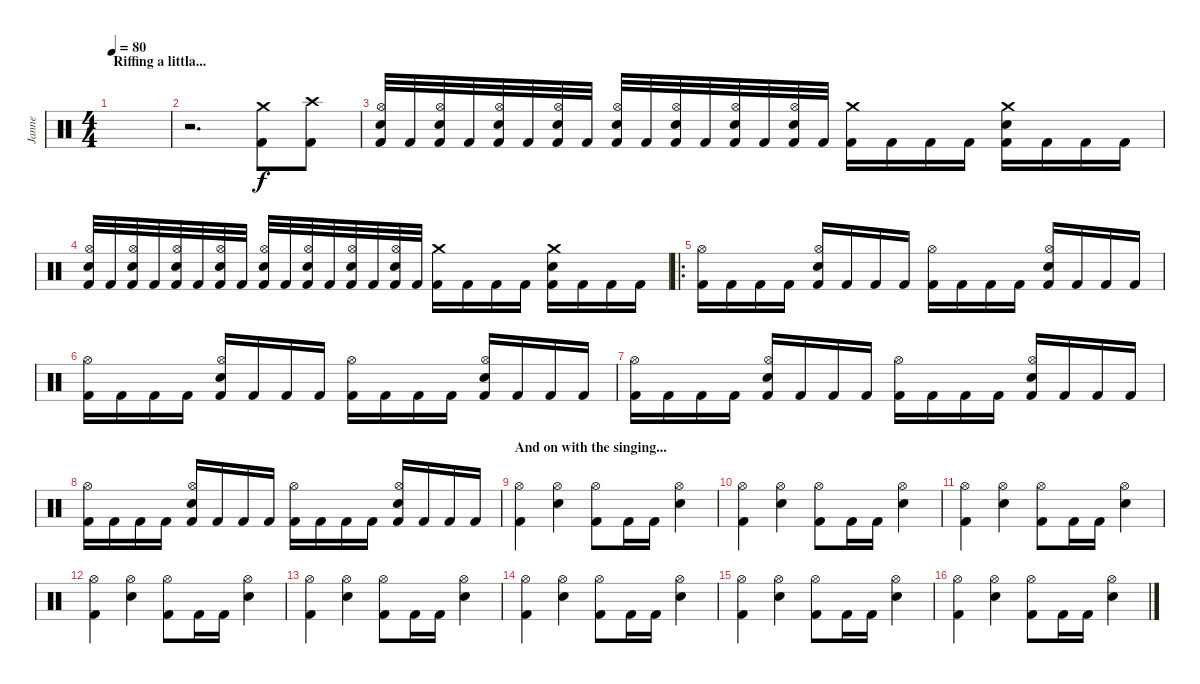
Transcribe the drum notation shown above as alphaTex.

\track ("Janne" "Janne") {instrument percussion}
\staff {score}
\articulation defaults
\ts (4 4)
\section ("" "Riffing a littla...")
\tempo 80
\clef neutral
\ks c
|
r.2{d} ("Crash medium (hit)" "Kick (hit) 2").8 ("Crash high (hit)" "Kick (hit) 2").8 |
("Hi-Hat (open)" "Electric Snare (hit)" "Kick (hit) 2").32 "Kick (hit) 2".32 ("Hi-Hat (open)" "Electric Snare (hit)" "Kick (hit) 2").32 "Kick (hit) 2".32 ("Hi-Hat (open)" "Electric Snare (hit)" "Kick (hit) 2").32 "Kick (hit) 2".32 ("Hi-Hat (open)" "Electric Snare (hit)" "Kick (hit) 2").32 "Kick (hit) 2".32 ("Hi-Hat (open)" "Electric Snare (hit)" "Kick (hit) 2").32 "Kick (hit) 2".32 ("Hi-Hat (open)" "Electric Snare (hit)" "Kick (hit) 2").32 "Kick (hit) 2".32 ("Hi-Hat (open)" "Electric Snare (hit)" "Kick (hit) 2").32 "Kick (hit) 2".32 ("Hi-Hat (open)" "Electric Snare (hit)" "Kick (hit) 2").32 "Kick (hit) 2".32 ("Crash medium (hit)" "Kick (hit) 2").16 "Kick (hit) 2".16 "Kick (hit) 2".16 "Kick (hit) 2".16 ("Crash medium (hit)" "Electric Snare (hit)" "Kick (hit) 2").16 "Kick (hit) 2".16 "Kick (hit) 2".16 "Kick (hit) 2".16 |
("Hi-Hat (open)" "Electric Snare (hit)" "Kick (hit) 2").32 "Kick (hit) 2".32 ("Hi-Hat (open)" "Electric Snare (hit)" "Kick (hit) 2").32 "Kick (hit) 2".32 ("Hi-Hat (open)" "Electric Snare (hit)" "Kick (hit) 2").32 "Kick (hit) 2".32 ("Hi-Hat (open)" "Electric Snare (hit)" "Kick (hit) 2").32 "Kick (hit) 2".32 ("Hi-Hat (open)" "Electric Snare (hit)" "Kick (hit) 2").32 "Kick (hit) 2".32 ("Hi-Hat (open)" "Electric Snare (hit)" "Kick (hit) 2").32 "Kick (hit) 2".32 ("Hi-Hat (open)" "Electric Snare (hit)" "Kick (hit) 2").32 "Kick (hit) 2".32 ("Hi-Hat (open)" "Electric Snare (hit)" "Kick (hit) 2").32 "Kick (hit) 2".32 ("Crash medium (hit)" "Kick (hit) 2").16 "Kick (hit) 2".16 "Kick (hit) 2".16 "Kick (hit) 2".16 ("Crash medium (hit)" "Electric Snare (hit)" "Kick (hit) 2").16 "Kick (hit) 2".16 "Kick (hit) 2".16 "Kick (hit) 2".16 |
\ro
("Hi-Hat (open)" "Kick (hit) 2").16 "Kick (hit) 2".16 "Kick (hit) 2".16 "Kick (hit) 2".16 ("Hi-Hat (open)" "Electric Snare (hit)" "Kick (hit) 2").16 "Kick (hit) 2".16 "Kick (hit) 2".16 "Kick (hit) 2".16 ("Hi-Hat (open)" "Kick (hit) 2").16 "Kick (hit) 2".16 "Kick (hit) 2".16 "Kick (hit) 2".16 ("Hi-Hat (open)" "Electric Snare (hit)" "Kick (hit) 2").16 "Kick (hit) 2".16 "Kick (hit) 2".16 "Kick (hit) 2".16 |
("Hi-Hat (open)" "Kick (hit) 2").16 "Kick (hit) 2".16 "Kick (hit) 2".16 "Kick (hit) 2".16 ("Hi-Hat (open)" "Electric Snare (hit)" "Kick (hit) 2").16 "Kick (hit) 2".16 "Kick (hit) 2".16 "Kick (hit) 2".16 ("Hi-Hat (open)" "Kick (hit) 2").16 "Kick (hit) 2".16 "Kick (hit) 2".16 "Kick (hit) 2".16 ("Hi-Hat (open)" "Electric Snare (hit)" "Kick (hit) 2").16 "Kick (hit) 2".16 "Kick (hit) 2".16 "Kick (hit) 2".16 |
("Hi-Hat (open)" "Kick (hit) 2").16 "Kick (hit) 2".16 "Kick (hit) 2".16 "Kick (hit) 2".16 ("Hi-Hat (open)" "Electric Snare (hit)" "Kick (hit) 2").16 "Kick (hit) 2".16 "Kick (hit) 2".16 "Kick (hit) 2".16 ("Hi-Hat (open)" "Kick (hit) 2").16 "Kick (hit) 2".16 "Kick (hit) 2".16 "Kick (hit) 2".16 ("Hi-Hat (open)" "Electric Snare (hit)" "Kick (hit) 2").16 "Kick (hit) 2".16 "Kick (hit) 2".16 "Kick (hit) 2".16 |
("Hi-Hat (open)" "Kick (hit) 2").16 "Kick (hit) 2".16 "Kick (hit) 2".16 "Kick (hit) 2".16 ("Hi-Hat (open)" "Electric Snare (hit)" "Kick (hit) 2").16 "Kick (hit) 2".16 "Kick (hit) 2".16 "Kick (hit) 2".16 ("Hi-Hat (open)" "Kick (hit) 2").16 "Kick (hit) 2".16 "Kick (hit) 2".16 "Kick (hit) 2".16 ("Hi-Hat (open)" "Electric Snare (hit)" "Kick (hit) 2").16 "Kick (hit) 2".16 "Kick (hit) 2".16 "Kick (hit) 2".16 |
\section ("" "And on with the singing...")
("Hi-Hat (open)" "Kick (hit) 2").4 ("Hi-Hat (open)" "Electric Snare (hit)").4 ("Hi-Hat (open)" "Kick (hit) 2").8 "Kick (hit) 2".16 "Kick (hit) 2".16 ("Hi-Hat (open)" "Electric Snare (hit)").4 |
("Hi-Hat (open)" "Kick (hit) 2").4 ("Hi-Hat (open)" "Electric Snare (hit)").4 ("Hi-Hat (open)" "Kick (hit) 2").8 "Kick (hit) 2".16 "Kick (hit) 2".16 ("Hi-Hat (open)" "Electric Snare (hit)").4 |
("Hi-Hat (open)" "Kick (hit) 2").4 ("Hi-Hat (open)" "Electric Snare (hit)").4 ("Hi-Hat (open)" "Kick (hit) 2").8 "Kick (hit) 2".16 "Kick (hit) 2".16 ("Hi-Hat (open)" "Electric Snare (hit)").4 |
("Hi-Hat (open)" "Kick (hit) 2").4 ("Hi-Hat (open)" "Electric Snare (hit)").4 ("Hi-Hat (open)" "Kick (hit) 2").8 "Kick (hit) 2".16 "Kick (hit) 2".16 ("Hi-Hat (open)" "Electric Snare (hit)").4 |
("Hi-Hat (open)" "Kick (hit) 2").4 ("Hi-Hat (open)" "Electric Snare (hit)").4 ("Hi-Hat (open)" "Kick (hit) 2").8 "Kick (hit) 2".16 "Kick (hit) 2".16 ("Hi-Hat (open)" "Electric Snare (hit)").4 |
("Hi-Hat (open)" "Kick (hit) 2").4 ("Hi-Hat (open)" "Electric Snare (hit)").4 ("Hi-Hat (open)" "Kick (hit) 2").8 "Kick (hit) 2".16 "Kick (hit) 2".16 ("Hi-Hat (open)" "Electric Snare (hit)").4 |
("Hi-Hat (open)" "Kick (hit) 2").4 ("Hi-Hat (open)" "Electric Snare (hit)").4 ("Hi-Hat (open)" "Kick (hit) 2").8 "Kick (hit) 2".16 "Kick (hit) 2".16 ("Hi-Hat (open)" "Electric Snare (hit)").4 |
("Hi-Hat (open)" "Kick (hit) 2").4 ("Hi-Hat (open)" "Electric Snare (hit)").4 ("Hi-Hat (open)" "Kick (hit) 2").8 "Kick (hit) 2".16 "Kick (hit) 2".16 ("Hi-Hat (open)" "Electric Snare (hit)").4
